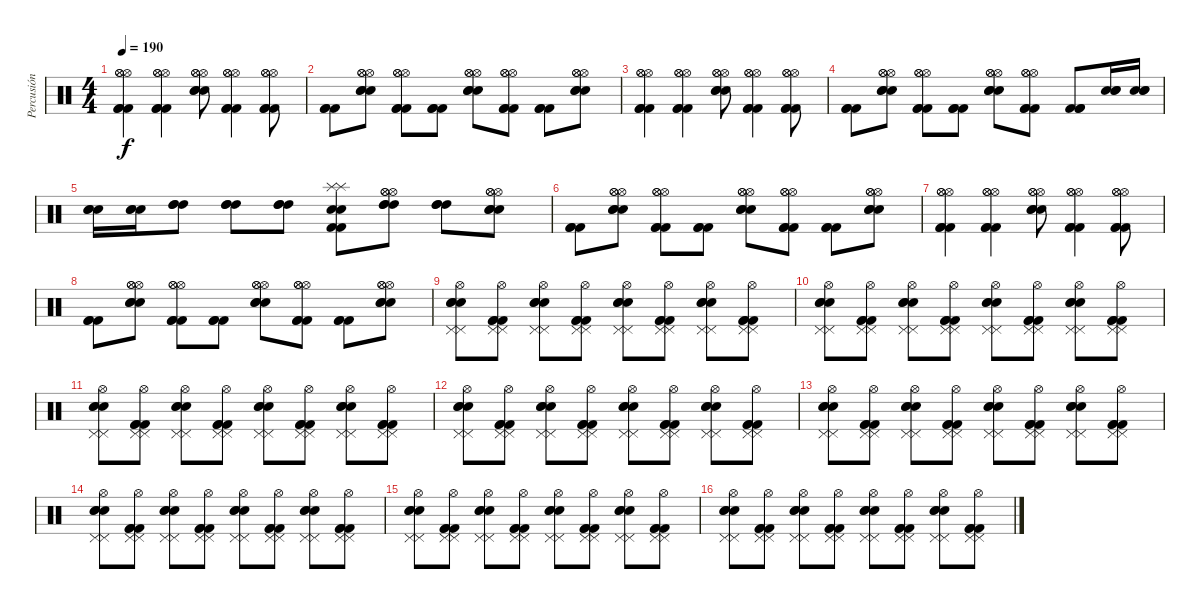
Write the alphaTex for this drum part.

\track ("Percusión" "Percusión") {instrument percussion}
\staff {score}
\articulation defaults
\ts (4 4)
\tempo 190
\clef neutral
\ks c
("Kick (hit) 2" "Kick (hit) 2" "Kick (hit) 2" "Hi-Hat (open)" "Hi-Hat (open)" "Hi-Hat (open)").4{dy f} ("Kick (hit) 2" "Kick (hit) 2" "Kick (hit) 2" "Hi-Hat (open)" "Hi-Hat (open)" "Hi-Hat (open)").4 ("Snare (hit) 2" "Snare (hit) 2" "Snare (hit) 2" "Hi-Hat (open)" "Hi-Hat (open)" "Hi-Hat (open)").8 ("Kick (hit) 2" "Kick (hit) 2" "Kick (hit) 2" "Hi-Hat (open)" "Hi-Hat (open)" "Hi-Hat (open)").4 ("Kick (hit) 2" "Kick (hit) 2" "Kick (hit) 2" "Hi-Hat (open)" "Hi-Hat (open)" "Hi-Hat (open)").8 |
("Kick (hit) 2" "Kick (hit) 2" "Kick (hit) 2").8 ("Snare (hit) 2" "Snare (hit) 2" "Snare (hit) 2" "Hi-Hat (open)" "Hi-Hat (open)" "Hi-Hat (open)").8 ("Kick (hit) 2" "Kick (hit) 2" "Kick (hit) 2" "Hi-Hat (open)" "Hi-Hat (open)" "Hi-Hat (open)").8 ("Kick (hit) 2" "Kick (hit) 2" "Kick (hit) 2").8 ("Snare (hit) 2" "Snare (hit) 2" "Snare (hit) 2" "Hi-Hat (open)" "Hi-Hat (open)" "Hi-Hat (open)").8 ("Kick (hit) 2" "Kick (hit) 2" "Kick (hit) 2" "Hi-Hat (open)" "Hi-Hat (open)" "Hi-Hat (open)").8 ("Kick (hit) 2" "Kick (hit) 2" "Kick (hit) 2").8 ("Snare (hit) 2" "Snare (hit) 2" "Snare (hit) 2" "Hi-Hat (open)" "Hi-Hat (open)" "Hi-Hat (open)").8 |
("Kick (hit) 2" "Kick (hit) 2" "Kick (hit) 2" "Hi-Hat (open)" "Hi-Hat (open)" "Hi-Hat (open)").4 ("Kick (hit) 2" "Kick (hit) 2" "Kick (hit) 2" "Hi-Hat (open)" "Hi-Hat (open)" "Hi-Hat (open)").4 ("Snare (hit) 2" "Snare (hit) 2" "Snare (hit) 2" "Hi-Hat (open)" "Hi-Hat (open)" "Hi-Hat (open)").8 ("Kick (hit) 2" "Kick (hit) 2" "Kick (hit) 2" "Hi-Hat (open)" "Hi-Hat (open)" "Hi-Hat (open)").4 ("Kick (hit) 2" "Kick (hit) 2" "Kick (hit) 2" "Hi-Hat (open)" "Hi-Hat (open)" "Hi-Hat (open)").8 |
("Kick (hit) 2" "Kick (hit) 2" "Kick (hit) 2").8 ("Snare (hit) 2" "Snare (hit) 2" "Snare (hit) 2" "Hi-Hat (open)" "Hi-Hat (open)" "Hi-Hat (open)").8 ("Kick (hit) 2" "Kick (hit) 2" "Kick (hit) 2" "Hi-Hat (open)" "Hi-Hat (open)" "Hi-Hat (open)").8 ("Kick (hit) 2" "Kick (hit) 2" "Kick (hit) 2").8 ("Snare (hit) 2" "Snare (hit) 2" "Snare (hit) 2" "Hi-Hat (open)" "Hi-Hat (open)" "Hi-Hat (open)").8 ("Kick (hit) 2" "Kick (hit) 2" "Kick (hit) 2" "Hi-Hat (open)" "Hi-Hat (open)" "Hi-Hat (open)").8 ("Kick (hit) 2" "Kick (hit) 2" "Kick (hit) 2").8 ("Snare (hit) 2" "Snare (hit) 2" "Snare (hit) 2").16 ("Snare (hit) 2" "Snare (hit) 2" "Snare (hit) 2").16 |
("Snare (hit) 2" "Snare (hit) 2" "Snare (hit) 2").16 ("Snare (hit) 2" "Snare (hit) 2" "Snare (hit) 2").16 ("High Tom (hit)" "High Tom (hit)" "High Tom (hit)").8 ("High Tom (hit)" "High Tom (hit)" "High Tom (hit)").8 ("High Tom (hit)" "High Tom (hit)" "High Tom (hit)").8 ("Snare (hit) 2" "Snare (hit) 2" "Kick (hit) 2" "Kick (hit) 2" "Splash (hit)" "Splash (hit)").8 ("High Tom (hit)" "High Tom (hit)" "High Tom (hit)" "Hi-Hat (open)" "Hi-Hat (open)" "Hi-Hat (open)").8 ("High Tom (hit)" "High Tom (hit)" "High Tom (hit)").8 ("Snare (hit) 2" "Snare (hit) 2" "Snare (hit) 2" "Hi-Hat (open)" "Hi-Hat (open)" "Hi-Hat (open)").8 |
("Kick (hit) 2" "Kick (hit) 2" "Kick (hit) 2").8 ("Snare (hit) 2" "Snare (hit) 2" "Snare (hit) 2" "Hi-Hat (open)" "Hi-Hat (open)" "Hi-Hat (open)").8 ("Kick (hit) 2" "Kick (hit) 2" "Kick (hit) 2" "Hi-Hat (open)" "Hi-Hat (open)" "Hi-Hat (open)").8 ("Kick (hit) 2" "Kick (hit) 2" "Kick (hit) 2").8 ("Snare (hit) 2" "Snare (hit) 2" "Snare (hit) 2" "Hi-Hat (open)" "Hi-Hat (open)" "Hi-Hat (open)").8 ("Kick (hit) 2" "Kick (hit) 2" "Kick (hit) 2" "Hi-Hat (open)" "Hi-Hat (open)" "Hi-Hat (open)").8 ("Kick (hit) 2" "Kick (hit) 2" "Kick (hit) 2").8 ("Snare (hit) 2" "Snare (hit) 2" "Snare (hit) 2" "Hi-Hat (open)" "Hi-Hat (open)" "Hi-Hat (open)").8 |
("Kick (hit) 2" "Kick (hit) 2" "Kick (hit) 2" "Hi-Hat (open)" "Hi-Hat (open)" "Hi-Hat (open)").4 ("Kick (hit) 2" "Kick (hit) 2" "Kick (hit) 2" "Hi-Hat (open)" "Hi-Hat (open)" "Hi-Hat (open)").4 ("Snare (hit) 2" "Snare (hit) 2" "Snare (hit) 2" "Hi-Hat (open)" "Hi-Hat (open)" "Hi-Hat (open)").8 ("Kick (hit) 2" "Kick (hit) 2" "Kick (hit) 2" "Hi-Hat (open)" "Hi-Hat (open)" "Hi-Hat (open)").4 ("Kick (hit) 2" "Kick (hit) 2" "Kick (hit) 2" "Hi-Hat (open)" "Hi-Hat (open)" "Hi-Hat (open)").8 |
("Kick (hit) 2" "Kick (hit) 2" "Kick (hit) 2").8 ("Snare (hit) 2" "Snare (hit) 2" "Snare (hit) 2" "Hi-Hat (open)" "Hi-Hat (open)" "Hi-Hat (open)").8 ("Kick (hit) 2" "Kick (hit) 2" "Kick (hit) 2" "Hi-Hat (open)" "Hi-Hat (open)" "Hi-Hat (open)").8 ("Kick (hit) 2" "Kick (hit) 2" "Kick (hit) 2").8 ("Snare (hit) 2" "Snare (hit) 2" "Snare (hit) 2" "Hi-Hat (open)" "Hi-Hat (open)" "Hi-Hat (open)").8 ("Kick (hit) 2" "Kick (hit) 2" "Kick (hit) 2" "Hi-Hat (open)" "Hi-Hat (open)" "Hi-Hat (open)").8 ("Kick (hit) 2" "Kick (hit) 2" "Kick (hit) 2").8 ("Snare (hit) 2" "Snare (hit) 2" "Snare (hit) 2" "Hi-Hat (open)" "Hi-Hat (open)" "Hi-Hat (open)").8 |
("Snare (hit) 2" "Snare (hit) 2" "Snare (hit) 2" "Pedal Hi-Hat (hit)" "Hi-Hat (open)" "Pedal Hi-Hat (hit)").8 ("Kick (hit) 2" "Kick (hit) 2" "Kick (hit) 2" "Pedal Hi-Hat (hit)" "Hi-Hat (open)" "Pedal Hi-Hat (hit)").8 ("Snare (hit) 2" "Snare (hit) 2" "Snare (hit) 2" "Pedal Hi-Hat (hit)" "Hi-Hat (open)" "Pedal Hi-Hat (hit)").8 ("Kick (hit) 2" "Kick (hit) 2" "Kick (hit) 2" "Pedal Hi-Hat (hit)" "Hi-Hat (open)" "Pedal Hi-Hat (hit)").8 ("Snare (hit) 2" "Snare (hit) 2" "Snare (hit) 2" "Pedal Hi-Hat (hit)" "Hi-Hat (open)" "Pedal Hi-Hat (hit)").8 ("Kick (hit) 2" "Kick (hit) 2" "Kick (hit) 2" "Pedal Hi-Hat (hit)" "Hi-Hat (open)" "Pedal Hi-Hat (hit)").8 ("Snare (hit) 2" "Snare (hit) 2" "Snare (hit) 2" "Pedal Hi-Hat (hit)" "Hi-Hat (open)" "Pedal Hi-Hat (hit)").8 ("Kick (hit) 2" "Kick (hit) 2" "Kick (hit) 2" "Pedal Hi-Hat (hit)" "Hi-Hat (open)" "Pedal Hi-Hat (hit)").8 |
("Snare (hit) 2" "Snare (hit) 2" "Snare (hit) 2" "Pedal Hi-Hat (hit)" "Hi-Hat (open)" "Pedal Hi-Hat (hit)").8 ("Kick (hit) 2" "Kick (hit) 2" "Kick (hit) 2" "Pedal Hi-Hat (hit)" "Hi-Hat (open)" "Pedal Hi-Hat (hit)").8 ("Snare (hit) 2" "Snare (hit) 2" "Snare (hit) 2" "Pedal Hi-Hat (hit)" "Hi-Hat (open)" "Pedal Hi-Hat (hit)").8 ("Kick (hit) 2" "Kick (hit) 2" "Kick (hit) 2" "Pedal Hi-Hat (hit)" "Hi-Hat (open)" "Pedal Hi-Hat (hit)").8 ("Snare (hit) 2" "Snare (hit) 2" "Snare (hit) 2" "Pedal Hi-Hat (hit)" "Hi-Hat (open)" "Pedal Hi-Hat (hit)").8 ("Kick (hit) 2" "Kick (hit) 2" "Kick (hit) 2" "Pedal Hi-Hat (hit)" "Hi-Hat (open)" "Pedal Hi-Hat (hit)").8 ("Snare (hit) 2" "Snare (hit) 2" "Snare (hit) 2" "Pedal Hi-Hat (hit)" "Hi-Hat (open)" "Pedal Hi-Hat (hit)").8 ("Kick (hit) 2" "Kick (hit) 2" "Kick (hit) 2" "Pedal Hi-Hat (hit)" "Hi-Hat (open)" "Pedal Hi-Hat (hit)").8 |
("Snare (hit) 2" "Snare (hit) 2" "Snare (hit) 2" "Pedal Hi-Hat (hit)" "Hi-Hat (open)" "Pedal Hi-Hat (hit)").8 ("Kick (hit) 2" "Kick (hit) 2" "Kick (hit) 2" "Pedal Hi-Hat (hit)" "Hi-Hat (open)" "Pedal Hi-Hat (hit)").8 ("Snare (hit) 2" "Snare (hit) 2" "Snare (hit) 2" "Pedal Hi-Hat (hit)" "Hi-Hat (open)" "Pedal Hi-Hat (hit)").8 ("Kick (hit) 2" "Kick (hit) 2" "Kick (hit) 2" "Pedal Hi-Hat (hit)" "Hi-Hat (open)" "Pedal Hi-Hat (hit)").8 ("Snare (hit) 2" "Snare (hit) 2" "Snare (hit) 2" "Pedal Hi-Hat (hit)" "Hi-Hat (open)" "Pedal Hi-Hat (hit)").8 ("Kick (hit) 2" "Kick (hit) 2" "Kick (hit) 2" "Pedal Hi-Hat (hit)" "Hi-Hat (open)" "Pedal Hi-Hat (hit)").8 ("Snare (hit) 2" "Snare (hit) 2" "Snare (hit) 2" "Pedal Hi-Hat (hit)" "Hi-Hat (open)" "Pedal Hi-Hat (hit)").8 ("Kick (hit) 2" "Kick (hit) 2" "Kick (hit) 2" "Pedal Hi-Hat (hit)" "Hi-Hat (open)" "Pedal Hi-Hat (hit)").8 |
("Snare (hit) 2" "Snare (hit) 2" "Snare (hit) 2" "Pedal Hi-Hat (hit)" "Hi-Hat (open)" "Pedal Hi-Hat (hit)").8 ("Kick (hit) 2" "Kick (hit) 2" "Kick (hit) 2" "Pedal Hi-Hat (hit)" "Hi-Hat (open)" "Pedal Hi-Hat (hit)").8 ("Snare (hit) 2" "Snare (hit) 2" "Snare (hit) 2" "Pedal Hi-Hat (hit)" "Hi-Hat (open)" "Pedal Hi-Hat (hit)").8 ("Kick (hit) 2" "Kick (hit) 2" "Kick (hit) 2" "Pedal Hi-Hat (hit)" "Hi-Hat (open)" "Pedal Hi-Hat (hit)").8 ("Snare (hit) 2" "Snare (hit) 2" "Snare (hit) 2" "Pedal Hi-Hat (hit)" "Hi-Hat (open)" "Pedal Hi-Hat (hit)").8 ("Kick (hit) 2" "Kick (hit) 2" "Kick (hit) 2" "Pedal Hi-Hat (hit)" "Hi-Hat (open)" "Pedal Hi-Hat (hit)").8 ("Snare (hit) 2" "Snare (hit) 2" "Snare (hit) 2" "Pedal Hi-Hat (hit)" "Hi-Hat (open)" "Pedal Hi-Hat (hit)").8 ("Kick (hit) 2" "Kick (hit) 2" "Kick (hit) 2" "Pedal Hi-Hat (hit)" "Hi-Hat (open)" "Pedal Hi-Hat (hit)").8 |
("Snare (hit) 2" "Snare (hit) 2" "Snare (hit) 2" "Pedal Hi-Hat (hit)" "Hi-Hat (open)" "Pedal Hi-Hat (hit)").8 ("Kick (hit) 2" "Kick (hit) 2" "Kick (hit) 2" "Pedal Hi-Hat (hit)" "Hi-Hat (open)" "Pedal Hi-Hat (hit)").8 ("Snare (hit) 2" "Snare (hit) 2" "Snare (hit) 2" "Pedal Hi-Hat (hit)" "Hi-Hat (open)" "Pedal Hi-Hat (hit)").8 ("Kick (hit) 2" "Kick (hit) 2" "Kick (hit) 2" "Pedal Hi-Hat (hit)" "Hi-Hat (open)" "Pedal Hi-Hat (hit)").8 ("Snare (hit) 2" "Snare (hit) 2" "Snare (hit) 2" "Pedal Hi-Hat (hit)" "Hi-Hat (open)" "Pedal Hi-Hat (hit)").8 ("Kick (hit) 2" "Kick (hit) 2" "Kick (hit) 2" "Pedal Hi-Hat (hit)" "Hi-Hat (open)" "Pedal Hi-Hat (hit)").8 ("Snare (hit) 2" "Snare (hit) 2" "Snare (hit) 2" "Pedal Hi-Hat (hit)" "Hi-Hat (open)" "Pedal Hi-Hat (hit)").8 ("Kick (hit) 2" "Kick (hit) 2" "Kick (hit) 2" "Pedal Hi-Hat (hit)" "Hi-Hat (open)" "Pedal Hi-Hat (hit)").8 |
("Snare (hit) 2" "Snare (hit) 2" "Snare (hit) 2" "Pedal Hi-Hat (hit)" "Hi-Hat (open)" "Pedal Hi-Hat (hit)").8 ("Kick (hit) 2" "Kick (hit) 2" "Kick (hit) 2" "Pedal Hi-Hat (hit)" "Hi-Hat (open)" "Pedal Hi-Hat (hit)").8 ("Snare (hit) 2" "Snare (hit) 2" "Snare (hit) 2" "Pedal Hi-Hat (hit)" "Hi-Hat (open)" "Pedal Hi-Hat (hit)").8 ("Kick (hit) 2" "Kick (hit) 2" "Kick (hit) 2" "Pedal Hi-Hat (hit)" "Hi-Hat (open)" "Pedal Hi-Hat (hit)").8 ("Snare (hit) 2" "Snare (hit) 2" "Snare (hit) 2" "Pedal Hi-Hat (hit)" "Hi-Hat (open)" "Pedal Hi-Hat (hit)").8 ("Kick (hit) 2" "Kick (hit) 2" "Kick (hit) 2" "Pedal Hi-Hat (hit)" "Hi-Hat (open)" "Pedal Hi-Hat (hit)").8 ("Snare (hit) 2" "Snare (hit) 2" "Snare (hit) 2" "Pedal Hi-Hat (hit)" "Hi-Hat (open)" "Pedal Hi-Hat (hit)").8 ("Kick (hit) 2" "Kick (hit) 2" "Kick (hit) 2" "Pedal Hi-Hat (hit)" "Hi-Hat (open)" "Pedal Hi-Hat (hit)").8 |
("Snare (hit) 2" "Snare (hit) 2" "Snare (hit) 2" "Pedal Hi-Hat (hit)" "Hi-Hat (open)" "Pedal Hi-Hat (hit)").8 ("Kick (hit) 2" "Kick (hit) 2" "Kick (hit) 2" "Pedal Hi-Hat (hit)" "Hi-Hat (open)" "Pedal Hi-Hat (hit)").8 ("Snare (hit) 2" "Snare (hit) 2" "Snare (hit) 2" "Pedal Hi-Hat (hit)" "Hi-Hat (open)" "Pedal Hi-Hat (hit)").8 ("Kick (hit) 2" "Kick (hit) 2" "Kick (hit) 2" "Pedal Hi-Hat (hit)" "Hi-Hat (open)" "Pedal Hi-Hat (hit)").8 ("Snare (hit) 2" "Snare (hit) 2" "Snare (hit) 2" "Pedal Hi-Hat (hit)" "Hi-Hat (open)" "Pedal Hi-Hat (hit)").8 ("Kick (hit) 2" "Kick (hit) 2" "Kick (hit) 2" "Pedal Hi-Hat (hit)" "Hi-Hat (open)" "Pedal Hi-Hat (hit)").8 ("Snare (hit) 2" "Snare (hit) 2" "Snare (hit) 2" "Pedal Hi-Hat (hit)" "Hi-Hat (open)" "Pedal Hi-Hat (hit)").8 ("Kick (hit) 2" "Kick (hit) 2" "Kick (hit) 2" "Pedal Hi-Hat (hit)" "Hi-Hat (open)" "Pedal Hi-Hat (hit)").8 |
("Snare (hit) 2" "Snare (hit) 2" "Snare (hit) 2" "Pedal Hi-Hat (hit)" "Hi-Hat (open)" "Pedal Hi-Hat (hit)").8 ("Kick (hit) 2" "Kick (hit) 2" "Kick (hit) 2" "Pedal Hi-Hat (hit)" "Hi-Hat (open)" "Pedal Hi-Hat (hit)").8 ("Snare (hit) 2" "Snare (hit) 2" "Snare (hit) 2" "Pedal Hi-Hat (hit)" "Hi-Hat (open)" "Pedal Hi-Hat (hit)").8 ("Kick (hit) 2" "Kick (hit) 2" "Kick (hit) 2" "Pedal Hi-Hat (hit)" "Hi-Hat (open)" "Pedal Hi-Hat (hit)").8 ("Snare (hit) 2" "Snare (hit) 2" "Snare (hit) 2" "Pedal Hi-Hat (hit)" "Hi-Hat (open)" "Pedal Hi-Hat (hit)").8 ("Kick (hit) 2" "Kick (hit) 2" "Kick (hit) 2" "Pedal Hi-Hat (hit)" "Hi-Hat (open)" "Pedal Hi-Hat (hit)").8 ("Snare (hit) 2" "Snare (hit) 2" "Snare (hit) 2" "Pedal Hi-Hat (hit)" "Hi-Hat (open)" "Pedal Hi-Hat (hit)").8 ("Kick (hit) 2" "Kick (hit) 2" "Kick (hit) 2" "Pedal Hi-Hat (hit)" "Hi-Hat (open)" "Pedal Hi-Hat (hit)").8
